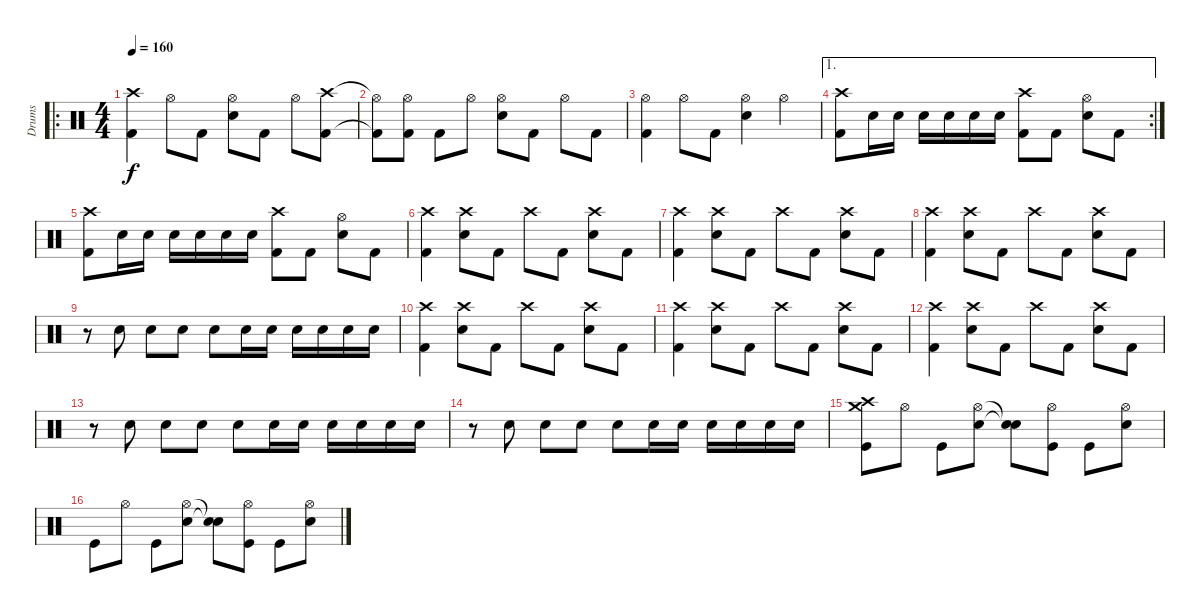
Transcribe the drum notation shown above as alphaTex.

\track ("Drums" "Drums") {instrument percussion}
\staff {score}
\articulation defaults
\ro
\ts (4 4)
\tempo 160
\clef neutral
\ks c
("Crash high (hit)" "Kick (hit) 2").4{dy f} "Hi-Hat (open)".8 "Kick (hit) 2".8 ("Hi-Hat (open)" "Electric Snare (hit)").8 "Kick (hit) 2".8 "Hi-Hat (open)".8 ("Crash high (hit)" "Kick (hit) 2").8 |
("Hi-Hat (open)"{t} "Kick (hit) 2"{t}).8 ("Hi-Hat (open)" "Kick (hit) 2").8 "Kick (hit) 2".8 "Hi-Hat (open)".8 ("Hi-Hat (open)" "Electric Snare (hit)").8 "Kick (hit) 2".8 "Hi-Hat (open)".8 "Kick (hit) 2".8 |
("Hi-Hat (open)" "Kick (hit) 2").4 "Hi-Hat (open)".8 "Kick (hit) 2".8 ("Hi-Hat (open)" "Electric Snare (hit)").4 "Hi-Hat (open)".4 |
\ae 1
\rc 2
("Crash high (hit)" "Kick (hit) 2").8 "Electric Snare (hit)".16 "Electric Snare (hit)".16 "Electric Snare (hit)".16 "Electric Snare (hit)".16 "Electric Snare (hit)".16 "Electric Snare (hit)".16 ("Crash high (hit)" "Kick (hit) 2").8 "Kick (hit) 2".8 ("Hi-Hat (open)" "Electric Snare (hit)").8 "Kick (hit) 2".8 |
("Crash high (hit)" "Kick (hit) 2").8 "Electric Snare (hit)".16 "Electric Snare (hit)".16 "Electric Snare (hit)".16 "Electric Snare (hit)".16 "Electric Snare (hit)".16 "Electric Snare (hit)".16 ("Crash high (hit)" "Kick (hit) 2").8 "Kick (hit) 2".8 ("Hi-Hat (open)" "Electric Snare (hit)").8 "Kick (hit) 2".8 |
("Crash high (hit)" "Kick (hit) 2").4 ("Crash high (hit)" "Electric Snare (hit)").8 "Kick (hit) 2".8 "Crash high (hit)".8 "Kick (hit) 2".8 ("Crash high (hit)" "Electric Snare (hit)").8 "Kick (hit) 2".8 |
("Crash high (hit)" "Kick (hit) 2").4 ("Crash high (hit)" "Electric Snare (hit)").8 "Kick (hit) 2".8 "Crash high (hit)".8 "Kick (hit) 2".8 ("Crash high (hit)" "Electric Snare (hit)").8 "Kick (hit) 2".8 |
("Crash high (hit)" "Kick (hit) 2").4 ("Crash high (hit)" "Electric Snare (hit)").8 "Kick (hit) 2".8 "Crash high (hit)".8 "Kick (hit) 2".8 ("Crash high (hit)" "Electric Snare (hit)").8 "Kick (hit) 2".8 |
r.8 "Electric Snare (hit)".8 "Electric Snare (hit)".8 "Electric Snare (hit)".8 "Electric Snare (hit)".8 "Electric Snare (hit)".16 "Electric Snare (hit)".16 "Electric Snare (hit)".16 "Electric Snare (hit)".16 "Electric Snare (hit)".16 "Electric Snare (hit)".16 |
("Crash high (hit)" "Kick (hit) 2").4 ("Crash high (hit)" "Electric Snare (hit)").8 "Kick (hit) 2".8 "Crash high (hit)".8 "Kick (hit) 2".8 ("Crash high (hit)" "Electric Snare (hit)").8 "Kick (hit) 2".8 |
("Crash high (hit)" "Kick (hit) 2").4 ("Crash high (hit)" "Electric Snare (hit)").8 "Kick (hit) 2".8 "Crash high (hit)".8 "Kick (hit) 2".8 ("Crash high (hit)" "Electric Snare (hit)").8 "Kick (hit) 2".8 |
("Crash high (hit)" "Kick (hit) 2").4 ("Crash high (hit)" "Electric Snare (hit)").8 "Kick (hit) 2".8 "Crash high (hit)".8 "Kick (hit) 2".8 ("Crash high (hit)" "Electric Snare (hit)").8 "Kick (hit) 2".8 |
r.8 "Electric Snare (hit)".8 "Electric Snare (hit)".8 "Electric Snare (hit)".8 "Electric Snare (hit)".8 "Electric Snare (hit)".16 "Electric Snare (hit)".16 "Electric Snare (hit)".16 "Electric Snare (hit)".16 "Electric Snare (hit)".16 "Electric Snare (hit)".16 |
r.8 "Electric Snare (hit)".8 "Electric Snare (hit)".8 "Electric Snare (hit)".8 "Electric Snare (hit)".8 "Electric Snare (hit)".16 "Electric Snare (hit)".16 "Electric Snare (hit)".16 "Electric Snare (hit)".16 "Electric Snare (hit)".16 "Electric Snare (hit)".16 |
("Kick (hit)" "Crash medium (hit)" "Crash high (hit)").8 "Hi-Hat (open)".8 "Kick (hit)".8 ("Hi-Hat (open)" "Electric Snare (hit)").8 ("Snare (hit)"{t} "Snare (hit)"{t}).8 ("Kick (hit)" "Hi-Hat (open)").8 "Kick (hit)".8 ("Hi-Hat (open)" "Electric Snare (hit)").8 |
"Kick (hit)".8 "Hi-Hat (open)".8 "Kick (hit)".8 ("Hi-Hat (open)" "Electric Snare (hit)").8 ("Snare (hit)"{t} "Snare (hit)"{t}).8 ("Kick (hit)" "Hi-Hat (open)").8 "Kick (hit)".8 ("Hi-Hat (open)" "Electric Snare (hit)").8
